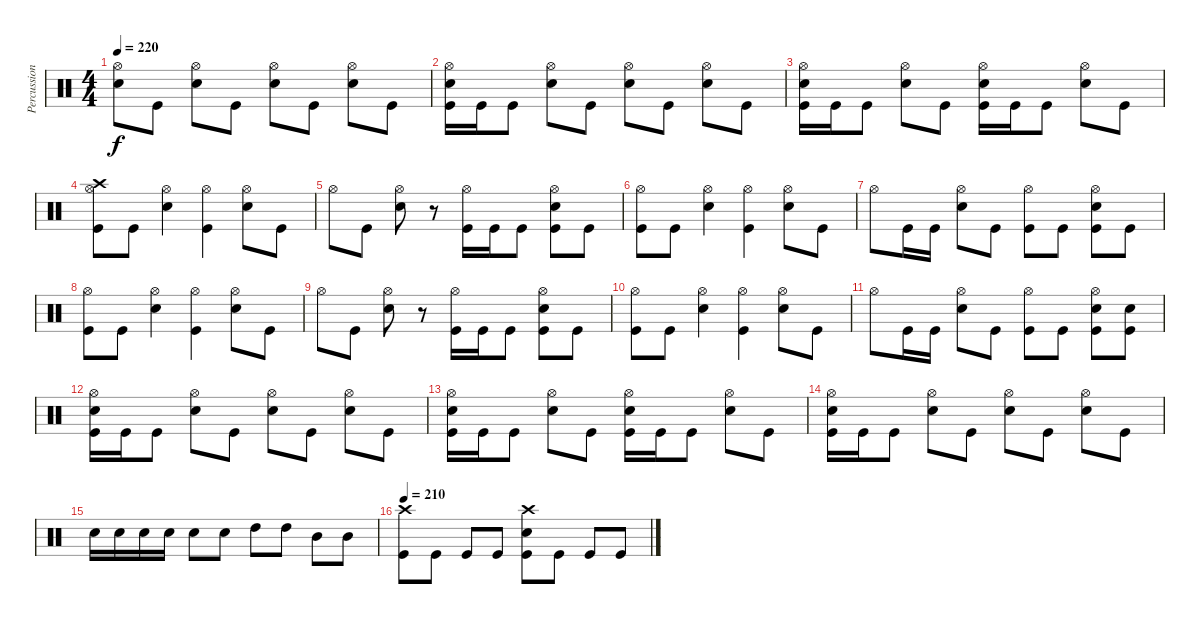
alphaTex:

\track ("Percussion" "Percussion") {instrument percussion}
\staff {score}
\articulation defaults
\ts (4 4)
\tempo 220
\clef neutral
\ks c
("Hi-Hat (open)" "Snare (hit) 2").8{dy f} "Kick (hit)".8 ("Hi-Hat (open)" "Snare (hit) 2").8 "Kick (hit)".8 ("Hi-Hat (open)" "Snare (hit) 2").8 "Kick (hit)".8 ("Hi-Hat (open)" "Snare (hit) 2").8 "Kick (hit)".8 |
("Hi-Hat (open)" "Snare (hit) 2" "Kick (hit)").16 "Kick (hit)".16 "Kick (hit)".8 ("Hi-Hat (open)" "Snare (hit) 2").8 "Kick (hit)".8 ("Hi-Hat (open)" "Snare (hit) 2").8 "Kick (hit)".8 ("Hi-Hat (open)" "Snare (hit) 2").8 "Kick (hit)".8 |
("Hi-Hat (open)" "Snare (hit) 2" "Kick (hit)").16 "Kick (hit)".16 "Kick (hit)".8 ("Hi-Hat (open)" "Snare (hit) 2").8 "Kick (hit)".8 ("Hi-Hat (open)" "Snare (hit) 2" "Kick (hit)").16 "Kick (hit)".16 "Kick (hit)".8 ("Hi-Hat (open)" "Snare (hit) 2").8 "Kick (hit)".8 |
("Hi-Hat (open)" "Crash high (hit)" "Kick (hit)").8 "Kick (hit)".8 ("Hi-Hat (open)" "Snare (hit) 2").4 ("Hi-Hat (open)" "Kick (hit)").4 ("Hi-Hat (open)" "Snare (hit) 2").8 "Kick (hit)".8 |
"Hi-Hat (open)".8 "Kick (hit)".8 ("Hi-Hat (open)" "Snare (hit) 2").8 r.8 ("Hi-Hat (open)" "Kick (hit)").16 "Kick (hit)".16 "Kick (hit)".8 ("Hi-Hat (open)" "Snare (hit) 2" "Kick (hit)").8 "Kick (hit)".8 |
("Hi-Hat (open)" "Kick (hit)").8 "Kick (hit)".8 ("Hi-Hat (open)" "Snare (hit) 2").4 ("Hi-Hat (open)" "Kick (hit)").4 ("Hi-Hat (open)" "Snare (hit) 2").8 "Kick (hit)".8 |
"Hi-Hat (open)".8 "Kick (hit)".16 "Kick (hit)".16 ("Hi-Hat (open)" "Snare (hit) 2").8 "Kick (hit)".8 ("Hi-Hat (open)" "Kick (hit)").8 "Kick (hit)".8 ("Hi-Hat (open)" "Snare (hit) 2" "Kick (hit)").8 "Kick (hit)".8 |
("Hi-Hat (open)" "Kick (hit)").8 "Kick (hit)".8 ("Hi-Hat (open)" "Snare (hit) 2").4 ("Hi-Hat (open)" "Kick (hit)").4 ("Hi-Hat (open)" "Snare (hit) 2").8 "Kick (hit)".8 |
"Hi-Hat (open)".8 "Kick (hit)".8 ("Hi-Hat (open)" "Snare (hit) 2").8 r.8 ("Hi-Hat (open)" "Kick (hit)").16 "Kick (hit)".16 "Kick (hit)".8 ("Hi-Hat (open)" "Snare (hit) 2" "Kick (hit)").8 "Kick (hit)".8 |
("Hi-Hat (open)" "Kick (hit)").8 "Kick (hit)".8 ("Hi-Hat (open)" "Snare (hit) 2").4 ("Hi-Hat (open)" "Kick (hit)").4 ("Hi-Hat (open)" "Snare (hit) 2").8 "Kick (hit)".8 |
"Hi-Hat (open)".8 "Kick (hit)".16 "Kick (hit)".16 ("Hi-Hat (open)" "Snare (hit) 2").8 "Kick (hit)".8 ("Hi-Hat (open)" "Kick (hit)").8 "Kick (hit)".8 ("Hi-Hat (open)" "Snare (hit) 2" "Kick (hit)").8 ("Snare (hit) 2" "Kick (hit)").8 |
("Hi-Hat (open)" "Snare (hit) 2" "Kick (hit)").16 "Kick (hit)".16 "Kick (hit)".8 ("Hi-Hat (open)" "Snare (hit) 2").8 "Kick (hit)".8 ("Hi-Hat (open)" "Snare (hit) 2").8 "Kick (hit)".8 ("Hi-Hat (open)" "Snare (hit) 2").8 "Kick (hit)".8 |
("Hi-Hat (open)" "Snare (hit) 2" "Kick (hit)").16 "Kick (hit)".16 "Kick (hit)".8 ("Hi-Hat (open)" "Snare (hit) 2").8 "Kick (hit)".8 ("Hi-Hat (open)" "Snare (hit) 2" "Kick (hit)").16 "Kick (hit)".16 "Kick (hit)".8 ("Hi-Hat (open)" "Snare (hit) 2").8 "Kick (hit)".8 |
("Hi-Hat (open)" "Snare (hit) 2" "Kick (hit)").16 "Kick (hit)".16 "Kick (hit)".8 ("Hi-Hat (open)" "Snare (hit) 2").8 "Kick (hit)".8 ("Hi-Hat (open)" "Snare (hit) 2").8 "Kick (hit)".8 ("Hi-Hat (open)" "Snare (hit) 2").8 "Kick (hit)".8 |
"Snare (hit) 2".16 "Snare (hit) 2".16 "Snare (hit) 2".16 "Snare (hit) 2".16 "Snare (hit) 2".8 "Snare (hit) 2".8 "High Tom (hit)".8 "High Tom (hit)".8 "Mid Tom (hit)".8 "Mid Tom (hit)".8 |
\tempo 210
("Crash high (hit)" "Kick (hit)").8 "Kick (hit)".8 "Kick (hit)".8 "Kick (hit)".8 ("Crash high (hit)" "Snare (hit) 2" "Kick (hit)").8 "Kick (hit)".8 "Kick (hit)".8 "Kick (hit)".8
